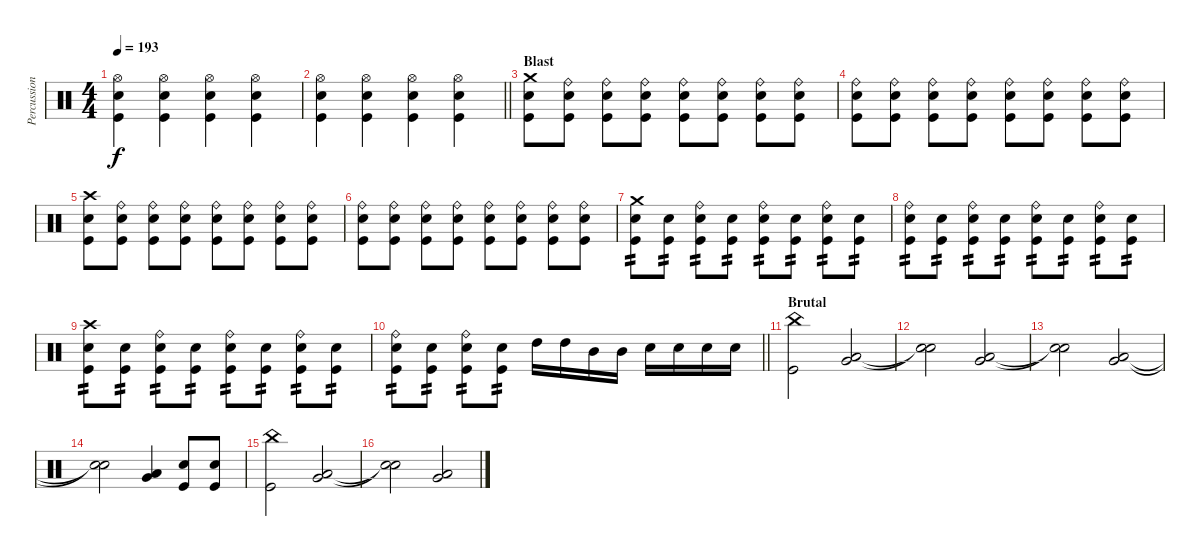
\track ("Percussions" "Percussion") {instrument percussion}
\staff {score}
\articulation defaults
\ts (4 4)
\tempo 193
\clef neutral
\ks c
("Hi-Hat (open)" "Electric Snare (hit)" "Kick (hit)").4{dy f} ("Hi-Hat (open)" "Electric Snare (hit)" "Kick (hit)").4 ("Hi-Hat (open)" "Electric Snare (hit)" "Kick (hit)").4 ("Hi-Hat (open)" "Electric Snare (hit)" "Kick (hit)").4 |
\barLineRight lightlight
("Hi-Hat (open)" "Electric Snare (hit)" "Kick (hit)").4 ("Hi-Hat (open)" "Electric Snare (hit)" "Kick (hit)").4 ("Hi-Hat (open)" "Electric Snare (hit)" "Kick (hit)").4 ("Hi-Hat (open)" "Electric Snare (hit)" "Kick (hit)").4 |
\section ("" "Blast")
("Crash medium (hit)" "Electric Snare (hit)" "Kick (hit)").8 ("Ride (bell)" "Electric Snare (hit)" "Kick (hit)").8 ("Ride (bell)" "Electric Snare (hit)" "Kick (hit)").8 ("Ride (bell)" "Electric Snare (hit)" "Kick (hit)").8 ("Ride (bell)" "Electric Snare (hit)" "Kick (hit)").8 ("Ride (bell)" "Electric Snare (hit)" "Kick (hit)").8 ("Ride (bell)" "Electric Snare (hit)" "Kick (hit)").8 ("Ride (bell)" "Electric Snare (hit)" "Kick (hit)").8 |
("Ride (bell)" "Electric Snare (hit)" "Kick (hit)").8 ("Ride (bell)" "Electric Snare (hit)" "Kick (hit)").8 ("Ride (bell)" "Electric Snare (hit)" "Kick (hit)").8 ("Ride (bell)" "Electric Snare (hit)" "Kick (hit)").8 ("Ride (bell)" "Electric Snare (hit)" "Kick (hit)").8 ("Ride (bell)" "Electric Snare (hit)" "Kick (hit)").8 ("Ride (bell)" "Electric Snare (hit)" "Kick (hit)").8 ("Ride (bell)" "Electric Snare (hit)" "Kick (hit)").8 |
("Crash high (hit)" "Electric Snare (hit)" "Kick (hit)").8 ("Ride (bell)" "Electric Snare (hit)" "Kick (hit)").8 ("Ride (bell)" "Electric Snare (hit)" "Kick (hit)").8 ("Ride (bell)" "Electric Snare (hit)" "Kick (hit)").8 ("Ride (bell)" "Electric Snare (hit)" "Kick (hit)").8 ("Ride (bell)" "Electric Snare (hit)" "Kick (hit)").8 ("Ride (bell)" "Electric Snare (hit)" "Kick (hit)").8 ("Ride (bell)" "Electric Snare (hit)" "Kick (hit)").8 |
("Ride (bell)" "Electric Snare (hit)" "Kick (hit)").8 ("Ride (bell)" "Electric Snare (hit)" "Kick (hit)").8 ("Ride (bell)" "Electric Snare (hit)" "Kick (hit)").8 ("Ride (bell)" "Electric Snare (hit)" "Kick (hit)").8 ("Ride (bell)" "Electric Snare (hit)" "Kick (hit)").8 ("Ride (bell)" "Electric Snare (hit)" "Kick (hit)").8 ("Ride (bell)" "Electric Snare (hit)" "Kick (hit)").8 ("Ride (bell)" "Electric Snare (hit)" "Kick (hit)").8 |
("Crash medium (hit)" "Electric Snare (hit)" "Kick (hit)").8{tp 2} ("Electric Snare (hit)" "Kick (hit)").8{tp 2} ("Ride (bell)" "Electric Snare (hit)" "Kick (hit)").8{tp 2} ("Electric Snare (hit)" "Kick (hit)").8{tp 2} ("Ride (bell)" "Electric Snare (hit)" "Kick (hit)").8{tp 2} ("Electric Snare (hit)" "Kick (hit)").8{tp 2} ("Ride (bell)" "Electric Snare (hit)" "Kick (hit)").8{tp 2} ("Electric Snare (hit)" "Kick (hit)").8{tp 2} |
("Ride (bell)" "Electric Snare (hit)" "Kick (hit)").8{tp 2} ("Electric Snare (hit)" "Kick (hit)").8{tp 2} ("Ride (bell)" "Electric Snare (hit)" "Kick (hit)").8{tp 2} ("Electric Snare (hit)" "Kick (hit)").8{tp 2} ("Ride (bell)" "Electric Snare (hit)" "Kick (hit)").8{tp 2} ("Electric Snare (hit)" "Kick (hit)").8{tp 2} ("Ride (bell)" "Electric Snare (hit)" "Kick (hit)").8{tp 2} ("Electric Snare (hit)" "Kick (hit)").8{tp 2} |
("Crash high (hit)" "Electric Snare (hit)" "Kick (hit)").8{tp 2} ("Electric Snare (hit)" "Kick (hit)").8{tp 2} ("Ride (bell)" "Electric Snare (hit)" "Kick (hit)").8{tp 2} ("Electric Snare (hit)" "Kick (hit)").8{tp 2} ("Ride (bell)" "Electric Snare (hit)" "Kick (hit)").8{tp 2} ("Electric Snare (hit)" "Kick (hit)").8{tp 2} ("Ride (bell)" "Electric Snare (hit)" "Kick (hit)").8{tp 2} ("Electric Snare (hit)" "Kick (hit)").8{tp 2} |
\barLineRight lightlight
("Ride (bell)" "Electric Snare (hit)" "Kick (hit)").8{tp 2} ("Electric Snare (hit)" "Kick (hit)").8{tp 2} ("Ride (bell)" "Electric Snare (hit)" "Kick (hit)").8{tp 2} ("Electric Snare (hit)" "Kick (hit)").8{tp 2} "High Tom (hit)".16 "High Tom (hit)".16 "Mid Tom (hit)".16 "Mid Tom (hit)".16 "Electric Snare (hit)".16 "Electric Snare (hit)".16 "Electric Snare (hit)".16 "Electric Snare (hit)".16 |
\section ("" "Brutal")
("China (hit)" "Kick (hit)").2 ("Very Low Tom (hit)" "Low Floor Tom (hit)").2 |
("Snare (hit)"{t} "Snare (hit)"{t}).2 ("Very Low Tom (hit)" "Low Floor Tom (hit)").2 |
("Snare (hit)"{t} "Snare (hit)"{t}).2 ("Very Low Tom (hit)" "Low Floor Tom (hit)").2 |
("Snare (hit)"{t} "Snare (hit)"{t}).2 ("Very Low Tom (hit)" "Low Floor Tom (hit)").4 ("Electric Snare (hit)" "Kick (hit)").8 ("Electric Snare (hit)" "Kick (hit)").8 |
("China (hit)" "Kick (hit)").2 ("Very Low Tom (hit)" "Low Floor Tom (hit)").2 |
("Snare (hit)"{t} "Snare (hit)"{t}).2 ("Very Low Tom (hit)" "Low Floor Tom (hit)").2
